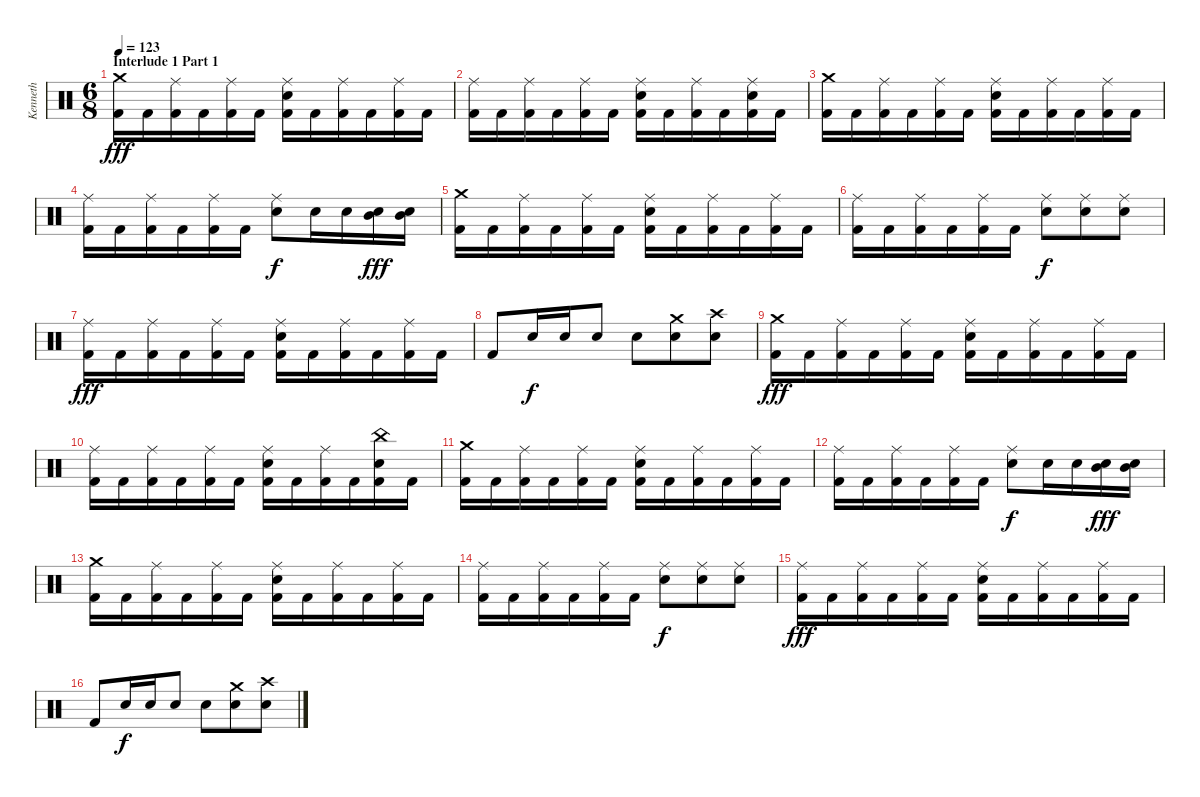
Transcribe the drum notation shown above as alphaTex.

\track ("Kenneth" "Kenneth") {instrument percussion}
\staff {score}
\articulation defaults
\ts (6 8)
\section ("" "Interlude 1 Part 1")
\tempo 123
\clef neutral
\ks c
("Crash medium (hit)" "Kick (hit) 2").16{dy fff} "Kick (hit) 2".16 ("Ride (middle)" "Kick (hit) 2").16 "Kick (hit) 2".16 ("Ride (middle)" "Kick (hit) 2").16 "Kick (hit) 2".16 ("Ride (middle)" "Snare (hit) 2" "Kick (hit) 2").16 "Kick (hit) 2".16 ("Ride (middle)" "Kick (hit) 2").16 "Kick (hit) 2".16 ("Ride (middle)" "Kick (hit) 2").16 "Kick (hit) 2".16 |
("Ride (middle)" "Kick (hit) 2").16 "Kick (hit) 2".16 ("Ride (middle)" "Kick (hit) 2").16 "Kick (hit) 2".16 ("Ride (middle)" "Kick (hit) 2").16 "Kick (hit) 2".16 ("Ride (middle)" "Snare (hit) 2" "Kick (hit) 2").16 "Kick (hit) 2".16 ("Ride (middle)" "Kick (hit) 2").16 "Kick (hit) 2".16 ("Ride (middle)" "Snare (hit) 2" "Kick (hit) 2").16 "Kick (hit) 2".16 |
("Crash medium (hit)" "Kick (hit) 2").16 "Kick (hit) 2".16 ("Ride (middle)" "Kick (hit) 2").16 "Kick (hit) 2".16 ("Ride (middle)" "Kick (hit) 2").16 "Kick (hit) 2".16 ("Ride (middle)" "Snare (hit) 2" "Kick (hit) 2").16 "Kick (hit) 2".16 ("Ride (middle)" "Kick (hit) 2").16 "Kick (hit) 2".16 ("Ride (middle)" "Kick (hit) 2").16 "Kick (hit) 2".16 |
("Ride (middle)" "Kick (hit) 2").16 "Kick (hit) 2".16 ("Ride (middle)" "Kick (hit) 2").16 "Kick (hit) 2".16 ("Ride (middle)" "Kick (hit) 2").16 "Kick (hit) 2".16 ("Ride (middle)" "Snare (hit) 2").8{dy f} "Snare (hit) 2".16 "Snare (hit) 2".16 ("Snare (hit) 2" "Mid Tom (hit)").16{dy fff} ("Snare (hit) 2" "Mid Tom (hit)").16 |
("Crash medium (hit)" "Kick (hit) 2").16 "Kick (hit) 2".16 ("Ride (middle)" "Kick (hit) 2").16 "Kick (hit) 2".16 ("Ride (middle)" "Kick (hit) 2").16 "Kick (hit) 2".16 ("Ride (middle)" "Snare (hit) 2" "Kick (hit) 2").16 "Kick (hit) 2".16 ("Ride (middle)" "Kick (hit) 2").16 "Kick (hit) 2".16 ("Ride (middle)" "Kick (hit) 2").16 "Kick (hit) 2".16 |
("Ride (middle)" "Kick (hit) 2").16 "Kick (hit) 2".16 ("Ride (middle)" "Kick (hit) 2").16 "Kick (hit) 2".16 ("Ride (middle)" "Kick (hit) 2").16 "Kick (hit) 2".16 ("Ride (middle)" "Snare (hit) 2").8{dy f} ("Ride (middle)" "Snare (hit) 2").8 ("Ride (middle)" "Snare (hit) 2").8 |
("Ride (middle)" "Kick (hit) 2").16{dy fff} "Kick (hit) 2".16 ("Ride (middle)" "Kick (hit) 2").16 "Kick (hit) 2".16 ("Ride (middle)" "Kick (hit) 2").16 "Kick (hit) 2".16 ("Ride (middle)" "Snare (hit) 2" "Kick (hit) 2").16 "Kick (hit) 2".16 ("Ride (middle)" "Kick (hit) 2").16 "Kick (hit) 2".16 ("Ride (middle)" "Kick (hit) 2").16 "Kick (hit) 2".16 |
"Kick (hit) 2".8 "Snare (hit) 2".16{dy f} "Snare (hit) 2".16 "Snare (hit) 2".8 "Snare (hit) 2".8 ("Crash medium (hit)" "Snare (hit) 2").8 ("Crash high (hit)" "Snare (hit) 2").8 |
("Crash medium (hit)" "Kick (hit) 2").16{dy fff} "Kick (hit) 2".16 ("Ride (middle)" "Kick (hit) 2").16 "Kick (hit) 2".16 ("Ride (middle)" "Kick (hit) 2").16 "Kick (hit) 2".16 ("Ride (middle)" "Snare (hit) 2" "Kick (hit) 2").16 "Kick (hit) 2".16 ("Ride (middle)" "Kick (hit) 2").16 "Kick (hit) 2".16 ("Ride (middle)" "Kick (hit) 2").16 "Kick (hit) 2".16 |
("Ride (middle)" "Kick (hit) 2").16 "Kick (hit) 2".16 ("Ride (middle)" "Kick (hit) 2").16 "Kick (hit) 2".16 ("Ride (middle)" "Kick (hit) 2").16 "Kick (hit) 2".16 ("Ride (middle)" "Snare (hit) 2" "Kick (hit) 2").16 "Kick (hit) 2".16 ("Ride (middle)" "Kick (hit) 2").16 "Kick (hit) 2".16 ("China (hit)" "Snare (hit) 2" "Kick (hit) 2").16 "Kick (hit) 2".16 |
("Crash medium (hit)" "Kick (hit) 2").16 "Kick (hit) 2".16 ("Ride (middle)" "Kick (hit) 2").16 "Kick (hit) 2".16 ("Ride (middle)" "Kick (hit) 2").16 "Kick (hit) 2".16 ("Ride (middle)" "Snare (hit) 2" "Kick (hit) 2").16 "Kick (hit) 2".16 ("Ride (middle)" "Kick (hit) 2").16 "Kick (hit) 2".16 ("Ride (middle)" "Kick (hit) 2").16 "Kick (hit) 2".16 |
("Ride (middle)" "Kick (hit) 2").16 "Kick (hit) 2".16 ("Ride (middle)" "Kick (hit) 2").16 "Kick (hit) 2".16 ("Ride (middle)" "Kick (hit) 2").16 "Kick (hit) 2".16 ("Ride (middle)" "Snare (hit) 2").8{dy f} "Snare (hit) 2".16 "Snare (hit) 2".16 ("Snare (hit) 2" "Mid Tom (hit)").16{dy fff} ("Snare (hit) 2" "Mid Tom (hit)").16 |
("Crash medium (hit)" "Kick (hit) 2").16 "Kick (hit) 2".16 ("Ride (middle)" "Kick (hit) 2").16 "Kick (hit) 2".16 ("Ride (middle)" "Kick (hit) 2").16 "Kick (hit) 2".16 ("Ride (middle)" "Snare (hit) 2" "Kick (hit) 2").16 "Kick (hit) 2".16 ("Ride (middle)" "Kick (hit) 2").16 "Kick (hit) 2".16 ("Ride (middle)" "Kick (hit) 2").16 "Kick (hit) 2".16 |
("Ride (middle)" "Kick (hit) 2").16 "Kick (hit) 2".16 ("Ride (middle)" "Kick (hit) 2").16 "Kick (hit) 2".16 ("Ride (middle)" "Kick (hit) 2").16 "Kick (hit) 2".16 ("Ride (middle)" "Snare (hit) 2").8{dy f} ("Ride (middle)" "Snare (hit) 2").8 ("Ride (middle)" "Snare (hit) 2").8 |
("Ride (middle)" "Kick (hit) 2").16{dy fff} "Kick (hit) 2".16 ("Ride (middle)" "Kick (hit) 2").16 "Kick (hit) 2".16 ("Ride (middle)" "Kick (hit) 2").16 "Kick (hit) 2".16 ("Ride (middle)" "Snare (hit) 2" "Kick (hit) 2").16 "Kick (hit) 2".16 ("Ride (middle)" "Kick (hit) 2").16 "Kick (hit) 2".16 ("Ride (middle)" "Kick (hit) 2").16 "Kick (hit) 2".16 |
"Kick (hit) 2".8 "Snare (hit) 2".16{dy f} "Snare (hit) 2".16 "Snare (hit) 2".8 "Snare (hit) 2".8 ("Crash medium (hit)" "Snare (hit) 2").8 ("Crash high (hit)" "Snare (hit) 2").8
